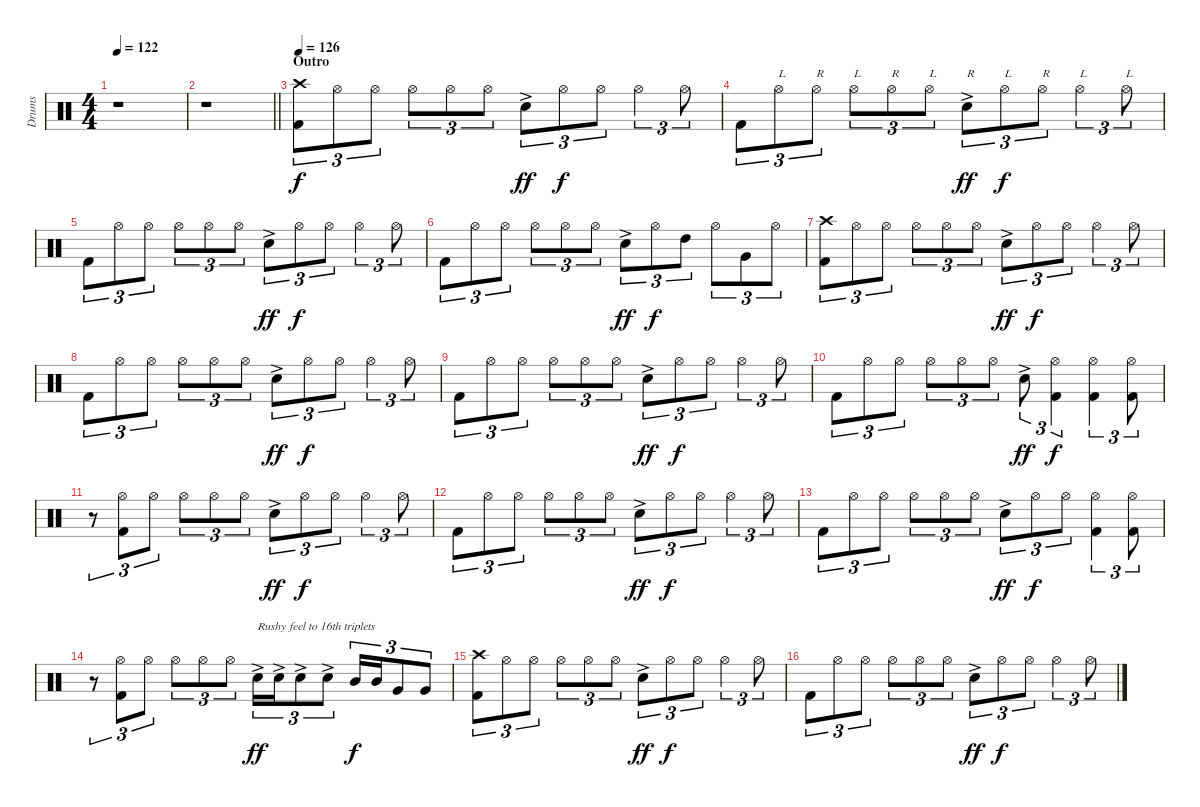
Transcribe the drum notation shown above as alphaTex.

\track ("Drums" "Drums") {instrument percussion}
\staff {score}
\articulation defaults
\ts (4 4)
\tempo 122
\clef neutral
\ks c
r.1{dy ppp} |
\barLineRight lightlight
r.1 |
\section ("" "Outro")
\tempo 126
("Crash high (hit)" "Kick (hit) 2").8{tu (3 2) dy f} "Hi-Hat (open)".8{tu (3 2)} "Hi-Hat (open)".8{tu (3 2)} "Hi-Hat (open)".8{tu (3 2)} "Hi-Hat (open)".8{tu (3 2)} "Hi-Hat (open)".8{tu (3 2)} "Electric Snare (hit)"{ac}.8{tu (3 2) dy ff} "Hi-Hat (open)".8{tu (3 2) dy f} "Hi-Hat (open)".8{tu (3 2)} "Hi-Hat (open)".4{tu (3 2)} "Hi-Hat (open)".8{tu (3 2)} |
"Kick (hit) 2".8{tu (3 2)} "Hi-Hat (open)".8{tu (3 2) txt "L"} "Hi-Hat (open)".8{tu (3 2) txt "R"} "Hi-Hat (open)".8{tu (3 2) txt "L"} "Hi-Hat (open)".8{tu (3 2) txt "R"} "Hi-Hat (open)".8{tu (3 2) txt "L"} "Electric Snare (hit)"{ac}.8{tu (3 2) txt "R" dy ff} "Hi-Hat (open)".8{tu (3 2) txt "L" dy f} "Hi-Hat (open)".8{tu (3 2) txt "R"} "Hi-Hat (open)".4{tu (3 2) txt "L"} "Hi-Hat (open)".8{tu (3 2) txt "L"} |
"Kick (hit) 2".8{tu (3 2)} "Hi-Hat (open)".8{tu (3 2)} "Hi-Hat (open)".8{tu (3 2)} "Hi-Hat (open)".8{tu (3 2)} "Hi-Hat (open)".8{tu (3 2)} "Hi-Hat (open)".8{tu (3 2)} "Electric Snare (hit)"{ac}.8{tu (3 2) dy ff} "Hi-Hat (open)".8{tu (3 2) dy f} "Hi-Hat (open)".8{tu (3 2)} "Hi-Hat (open)".4{tu (3 2)} "Hi-Hat (open)".8{tu (3 2)} |
"Kick (hit) 2".8{tu (3 2)} "Hi-Hat (open)".8{tu (3 2)} "Hi-Hat (open)".8{tu (3 2)} "Hi-Hat (open)".8{tu (3 2)} "Hi-Hat (open)".8{tu (3 2)} "Hi-Hat (open)".8{tu (3 2)} "Electric Snare (hit)"{ac}.8{tu (3 2) dy ff} "Hi-Hat (open)".8{tu (3 2) dy f} "High Tom (hit)".8{tu (3 2)} "Hi-Hat (open)".8{tu (3 2)} "Very Low Tom (hit)".8{tu (3 2)} "Hi-Hat (open)".8{tu (3 2)} |
("Crash high (hit)" "Kick (hit) 2").8{tu (3 2)} "Hi-Hat (open)".8{tu (3 2)} "Hi-Hat (open)".8{tu (3 2)} "Hi-Hat (open)".8{tu (3 2)} "Hi-Hat (open)".8{tu (3 2)} "Hi-Hat (open)".8{tu (3 2)} "Electric Snare (hit)"{ac}.8{tu (3 2) dy ff} "Hi-Hat (open)".8{tu (3 2) dy f} "Hi-Hat (open)".8{tu (3 2)} "Hi-Hat (open)".4{tu (3 2)} "Hi-Hat (open)".8{tu (3 2)} |
"Kick (hit) 2".8{tu (3 2)} "Hi-Hat (open)".8{tu (3 2)} "Hi-Hat (open)".8{tu (3 2)} "Hi-Hat (open)".8{tu (3 2)} "Hi-Hat (open)".8{tu (3 2)} "Hi-Hat (open)".8{tu (3 2)} "Electric Snare (hit)"{ac}.8{tu (3 2) dy ff} "Hi-Hat (open)".8{tu (3 2) dy f} "Hi-Hat (open)".8{tu (3 2)} "Hi-Hat (open)".4{tu (3 2)} "Hi-Hat (open)".8{tu (3 2)} |
"Kick (hit) 2".8{tu (3 2)} "Hi-Hat (open)".8{tu (3 2)} "Hi-Hat (open)".8{tu (3 2)} "Hi-Hat (open)".8{tu (3 2)} "Hi-Hat (open)".8{tu (3 2)} "Hi-Hat (open)".8{tu (3 2)} "Electric Snare (hit)"{ac}.8{tu (3 2) dy ff} "Hi-Hat (open)".8{tu (3 2) dy f} "Hi-Hat (open)".8{tu (3 2)} "Hi-Hat (open)".4{tu (3 2)} "Hi-Hat (open)".8{tu (3 2)} |
"Kick (hit) 2".8{tu (3 2)} "Hi-Hat (open)".8{tu (3 2)} "Hi-Hat (open)".8{tu (3 2)} "Hi-Hat (open)".8{tu (3 2)} "Hi-Hat (open)".8{tu (3 2)} "Hi-Hat (open)".8{tu (3 2)} "Electric Snare (hit)"{ac}.8{tu (3 2) dy ff} ("Hi-Hat (open)" "Kick (hit) 2").4{tu (3 2) dy f} ("Hi-Hat (open)" "Kick (hit) 2").4{tu (3 2)} ("Hi-Hat (open)" "Kick (hit) 2").8{tu (3 2)} |
r.8{tu (3 2)} ("Hi-Hat (open)" "Kick (hit) 2").8{tu (3 2)} "Hi-Hat (open)".8{tu (3 2)} "Hi-Hat (open)".8{tu (3 2)} "Hi-Hat (open)".8{tu (3 2)} "Hi-Hat (open)".8{tu (3 2)} "Electric Snare (hit)"{ac}.8{tu (3 2) dy ff} "Hi-Hat (open)".8{tu (3 2) dy f} "Hi-Hat (open)".8{tu (3 2)} "Hi-Hat (open)".4{tu (3 2)} "Hi-Hat (open)".8{tu (3 2)} |
"Kick (hit) 2".8{tu (3 2)} "Hi-Hat (open)".8{tu (3 2)} "Hi-Hat (open)".8{tu (3 2)} "Hi-Hat (open)".8{tu (3 2)} "Hi-Hat (open)".8{tu (3 2)} "Hi-Hat (open)".8{tu (3 2)} "Electric Snare (hit)"{ac}.8{tu (3 2) dy ff} "Hi-Hat (open)".8{tu (3 2) dy f} "Hi-Hat (open)".8{tu (3 2)} "Hi-Hat (open)".4{tu (3 2)} "Hi-Hat (open)".8{tu (3 2)} |
"Kick (hit) 2".8{tu (3 2)} "Hi-Hat (open)".8{tu (3 2)} "Hi-Hat (open)".8{tu (3 2)} "Hi-Hat (open)".8{tu (3 2)} "Hi-Hat (open)".8{tu (3 2)} "Hi-Hat (open)".8{tu (3 2)} "Electric Snare (hit)"{ac}.8{tu (3 2) dy ff} "Hi-Hat (open)".8{tu (3 2) dy f} "Hi-Hat (open)".8{tu (3 2)} ("Hi-Hat (open)" "Kick (hit) 2").4{tu (3 2)} ("Hi-Hat (open)" "Kick (hit) 2").8{tu (3 2)} |
r.8{tu (3 2)} ("Hi-Hat (open)" "Kick (hit) 2").8{tu (3 2)} "Hi-Hat (open)".8{tu (3 2)} "Hi-Hat (open)".8{tu (3 2)} "Hi-Hat (open)".8{tu (3 2)} "Hi-Hat (open)".8{tu (3 2)} "Electric Snare (hit)"{ac}.16{tu (3 2) txt "Rushy feel to 16th triplets" dy ff} "Electric Snare (hit)"{ac}.16{tu (3 2)} "Electric Snare (hit)"{ac}.8{tu (3 2)} "Electric Snare (hit)"{ac}.8{tu (3 2)} "Mid Tom (hit)".16{tu (3 2) dy f} "Mid Tom (hit)".16{tu (3 2)} "Very Low Tom (hit)".8{tu (3 2)} "Very Low Tom (hit)".8{tu (3 2)} |
("Crash high (hit)" "Kick (hit) 2").8{tu (3 2)} "Hi-Hat (open)".8{tu (3 2)} "Hi-Hat (open)".8{tu (3 2)} "Hi-Hat (open)".8{tu (3 2)} "Hi-Hat (open)".8{tu (3 2)} "Hi-Hat (open)".8{tu (3 2)} "Electric Snare (hit)"{ac}.8{tu (3 2) dy ff} "Hi-Hat (open)".8{tu (3 2) dy f} "Hi-Hat (open)".8{tu (3 2)} "Hi-Hat (open)".4{tu (3 2)} "Hi-Hat (open)".8{tu (3 2)} |
"Kick (hit) 2".8{tu (3 2)} "Hi-Hat (open)".8{tu (3 2)} "Hi-Hat (open)".8{tu (3 2)} "Hi-Hat (open)".8{tu (3 2)} "Hi-Hat (open)".8{tu (3 2)} "Hi-Hat (open)".8{tu (3 2)} "Electric Snare (hit)"{ac}.8{tu (3 2) dy ff} "Hi-Hat (open)".8{tu (3 2) dy f} "Hi-Hat (open)".8{tu (3 2)} "Hi-Hat (open)".4{tu (3 2)} "Hi-Hat (open)".8{tu (3 2)}
